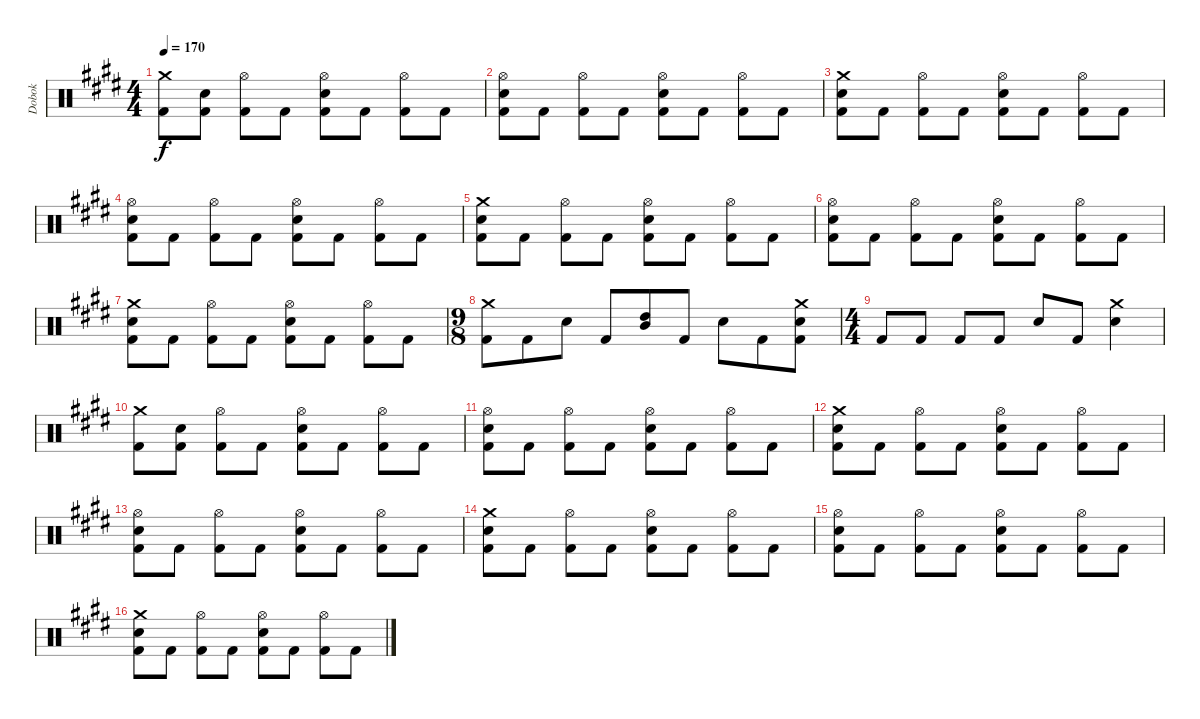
\track ("Dobok" "Dobok") {instrument percussion}
\staff {score}
\articulation defaults
\ts (4 4)
\tempo 170
\clef neutral
\ks c#minor
("Crash medium (hit)" "Kick (hit) 2").8{dy f} ("Snare (hit) 2" "Kick (hit) 2").8 ("Hi-Hat (open)" "Kick (hit) 2").8 "Kick (hit) 2".8 ("Hi-Hat (open)" "Snare (hit) 2" "Kick (hit) 2").8 "Kick (hit) 2".8 ("Hi-Hat (open)" "Kick (hit) 2").8 "Kick (hit) 2".8 |
("Hi-Hat (open)" "Snare (hit) 2" "Kick (hit) 2").8 "Kick (hit) 2".8 ("Hi-Hat (open)" "Kick (hit) 2").8 "Kick (hit) 2".8 ("Hi-Hat (open)" "Snare (hit) 2" "Kick (hit) 2").8 "Kick (hit) 2".8 ("Hi-Hat (open)" "Kick (hit) 2").8 "Kick (hit) 2".8 |
("Crash medium (hit)" "Snare (hit) 2" "Kick (hit) 2").8 "Kick (hit) 2".8 ("Hi-Hat (open)" "Kick (hit) 2").8 "Kick (hit) 2".8 ("Hi-Hat (open)" "Snare (hit) 2" "Kick (hit) 2").8 "Kick (hit) 2".8 ("Hi-Hat (open)" "Kick (hit) 2").8 "Kick (hit) 2".8 |
("Hi-Hat (open)" "Snare (hit) 2" "Kick (hit) 2").8 "Kick (hit) 2".8 ("Hi-Hat (open)" "Kick (hit) 2").8 "Kick (hit) 2".8 ("Hi-Hat (open)" "Snare (hit) 2" "Kick (hit) 2").8 "Kick (hit) 2".8 ("Hi-Hat (open)" "Kick (hit) 2").8 "Kick (hit) 2".8 |
("Crash medium (hit)" "Snare (hit) 2" "Kick (hit) 2").8 "Kick (hit) 2".8 ("Hi-Hat (open)" "Kick (hit) 2").8 "Kick (hit) 2".8 ("Hi-Hat (open)" "Snare (hit) 2" "Kick (hit) 2").8 "Kick (hit) 2".8 ("Hi-Hat (open)" "Kick (hit) 2").8 "Kick (hit) 2".8 |
("Hi-Hat (open)" "Snare (hit) 2" "Kick (hit) 2").8 "Kick (hit) 2".8 ("Hi-Hat (open)" "Kick (hit) 2").8 "Kick (hit) 2".8 ("Hi-Hat (open)" "Snare (hit) 2" "Kick (hit) 2").8 "Kick (hit) 2".8 ("Hi-Hat (open)" "Kick (hit) 2").8 "Kick (hit) 2".8 |
("Crash medium (hit)" "Snare (hit) 2" "Kick (hit) 2").8 "Kick (hit) 2".8 ("Hi-Hat (open)" "Kick (hit) 2").8 "Kick (hit) 2".8 ("Hi-Hat (open)" "Snare (hit) 2" "Kick (hit) 2").8 "Kick (hit) 2".8 ("Hi-Hat (open)" "Kick (hit) 2").8 "Kick (hit) 2".8 |
\ts (9 8)
("Crash medium (hit)" "Kick (hit) 2").8 "Kick (hit) 2".8 "Snare (hit) 2".8 "Kick (hit) 2".8 ("High Tom (hit)" "Mid Tom (hit)").8 "Kick (hit) 2".8 "Snare (hit) 2".8 "Kick (hit) 2".8 ("Crash medium (hit)" "Snare (hit) 2" "Kick (hit) 2").8 |
\ts (4 4)
"Kick (hit) 2".8 "Kick (hit) 2".8 "Kick (hit) 2".8 "Kick (hit) 2".8 "Snare (hit) 2".8 "Kick (hit) 2".8 ("Crash medium (hit)" "Snare (hit) 2").4 |
("Crash medium (hit)" "Kick (hit) 2").8 ("Snare (hit) 2" "Kick (hit) 2").8 ("Hi-Hat (open)" "Kick (hit) 2").8 "Kick (hit) 2".8 ("Hi-Hat (open)" "Snare (hit) 2" "Kick (hit) 2").8 "Kick (hit) 2".8 ("Hi-Hat (open)" "Kick (hit) 2").8 "Kick (hit) 2".8 |
("Hi-Hat (open)" "Snare (hit) 2" "Kick (hit) 2").8 "Kick (hit) 2".8 ("Hi-Hat (open)" "Kick (hit) 2").8 "Kick (hit) 2".8 ("Hi-Hat (open)" "Snare (hit) 2" "Kick (hit) 2").8 "Kick (hit) 2".8 ("Hi-Hat (open)" "Kick (hit) 2").8 "Kick (hit) 2".8 |
("Crash medium (hit)" "Snare (hit) 2" "Kick (hit) 2").8 "Kick (hit) 2".8 ("Hi-Hat (open)" "Kick (hit) 2").8 "Kick (hit) 2".8 ("Hi-Hat (open)" "Snare (hit) 2" "Kick (hit) 2").8 "Kick (hit) 2".8 ("Hi-Hat (open)" "Kick (hit) 2").8 "Kick (hit) 2".8 |
("Hi-Hat (open)" "Snare (hit) 2" "Kick (hit) 2").8 "Kick (hit) 2".8 ("Hi-Hat (open)" "Kick (hit) 2").8 "Kick (hit) 2".8 ("Hi-Hat (open)" "Snare (hit) 2" "Kick (hit) 2").8 "Kick (hit) 2".8 ("Hi-Hat (open)" "Kick (hit) 2").8 "Kick (hit) 2".8 |
("Crash medium (hit)" "Snare (hit) 2" "Kick (hit) 2").8 "Kick (hit) 2".8 ("Hi-Hat (open)" "Kick (hit) 2").8 "Kick (hit) 2".8 ("Hi-Hat (open)" "Snare (hit) 2" "Kick (hit) 2").8 "Kick (hit) 2".8 ("Hi-Hat (open)" "Kick (hit) 2").8 "Kick (hit) 2".8 |
("Hi-Hat (open)" "Snare (hit) 2" "Kick (hit) 2").8 "Kick (hit) 2".8 ("Hi-Hat (open)" "Kick (hit) 2").8 "Kick (hit) 2".8 ("Hi-Hat (open)" "Snare (hit) 2" "Kick (hit) 2").8 "Kick (hit) 2".8 ("Hi-Hat (open)" "Kick (hit) 2").8 "Kick (hit) 2".8 |
("Crash medium (hit)" "Snare (hit) 2" "Kick (hit) 2").8 "Kick (hit) 2".8 ("Hi-Hat (open)" "Kick (hit) 2").8 "Kick (hit) 2".8 ("Hi-Hat (open)" "Snare (hit) 2" "Kick (hit) 2").8 "Kick (hit) 2".8 ("Hi-Hat (open)" "Kick (hit) 2").8 "Kick (hit) 2".8
